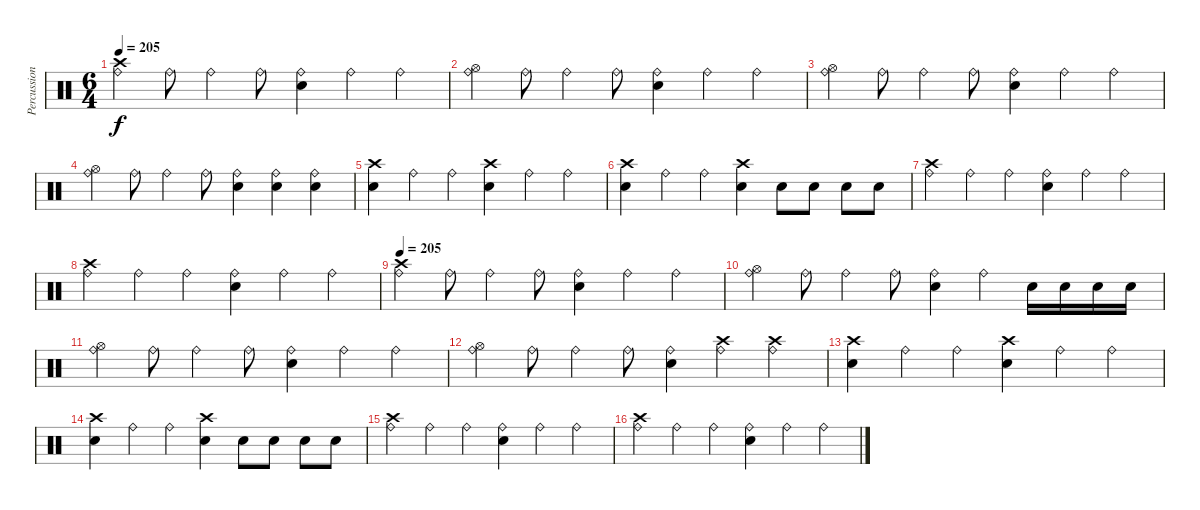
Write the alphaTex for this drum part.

\track ("Percussion" "Percussion") {instrument percussion}
\staff {score}
\articulation defaults
\ts (6 4)
\tempo 205
\clef neutral
\ks c
("Ride (bell)" "Crash high (hit)").4{dy f volume 12} "Ride (bell)".8 "Ride (bell)".4 "Ride (bell)".8 ("Ride (bell)" "Electric Snare (hit)").4 "Ride (bell)".4 "Ride (bell)".4 |
("Ride (bell)" "Hi-Hat (open)").4 "Ride (bell)".8 "Ride (bell)".4 "Ride (bell)".8 ("Ride (bell)" "Electric Snare (hit)").4 "Ride (bell)".4 "Ride (bell)".4 |
("Ride (bell)" "Hi-Hat (open)").4{volume 12} "Ride (bell)".8 "Ride (bell)".4 "Ride (bell)".8 ("Ride (bell)" "Electric Snare (hit)").4 "Ride (bell)".4 "Ride (bell)".4 |
("Ride (bell)" "Hi-Hat (open)").4 "Ride (bell)".8 "Ride (bell)".4 "Ride (bell)".8 ("Ride (bell)" "Electric Snare (hit)").4 ("Ride (bell)" "Snare (hit) 2").4 ("Ride (bell)" "Snare (hit) 2").4 |
("Crash high (hit)" "Snare (hit) 2").4 "Ride (bell)".4 "Ride (bell)".4 ("Crash high (hit)" "Snare (hit) 2").4 "Ride (bell)".4 "Ride (bell)".4 |
("Crash high (hit)" "Snare (hit) 2").4 "Ride (bell)".4 "Ride (bell)".4 ("Crash high (hit)" "Snare (hit) 2").4 "Electric Snare (hit)".8 "Electric Snare (hit)".8 "Electric Snare (hit)".8 "Electric Snare (hit)".8 |
("Ride (bell)" "Crash high (hit)").4 "Ride (bell)".4 "Ride (bell)".4 ("Ride (bell)" "Electric Snare (hit)").4 "Ride (bell)".4 "Ride (bell)".4 |
("Ride (bell)" "Crash high (hit)").4 "Ride (bell)".4 "Ride (bell)".4 ("Ride (bell)" "Electric Snare (hit)").4 "Ride (bell)".4 "Ride (bell)".4 |
\tempo 205
("Ride (bell)" "Crash high (hit)").4{volume 12} "Ride (bell)".8 "Ride (bell)".4 "Ride (bell)".8 ("Ride (bell)" "Electric Snare (hit)").4 "Ride (bell)".4 "Ride (bell)".4 |
("Ride (bell)" "Hi-Hat (open)").4 "Ride (bell)".8 "Ride (bell)".4 "Ride (bell)".8 ("Ride (bell)" "Electric Snare (hit)").4 "Ride (bell)".4 "Electric Snare (hit)".16 "Electric Snare (hit)".16 "Electric Snare (hit)".16 "Electric Snare (hit)".16 |
("Ride (bell)" "Hi-Hat (open)").4{volume 12} "Ride (bell)".8 "Ride (bell)".4 "Ride (bell)".8 ("Ride (bell)" "Electric Snare (hit)").4 "Ride (bell)".4 "Ride (bell)".4 |
("Ride (bell)" "Hi-Hat (open)").4 "Ride (bell)".8 "Ride (bell)".4 "Ride (bell)".8 ("Ride (bell)" "Electric Snare (hit)").4 ("Ride (bell)" "Crash high (hit)").4 ("Ride (bell)" "Crash high (hit)").4 |
("Crash high (hit)" "Snare (hit) 2").4 "Ride (bell)".4 "Ride (bell)".4 ("Crash high (hit)" "Snare (hit) 2").4 "Ride (bell)".4 "Ride (bell)".4 |
("Crash high (hit)" "Snare (hit) 2").4 "Ride (bell)".4 "Ride (bell)".4 ("Crash high (hit)" "Snare (hit) 2").4 "Electric Snare (hit)".8 "Electric Snare (hit)".8 "Electric Snare (hit)".8 "Electric Snare (hit)".8 |
("Ride (bell)" "Crash high (hit)").4 "Ride (bell)".4 "Ride (bell)".4 ("Ride (bell)" "Electric Snare (hit)").4 "Ride (bell)".4 "Ride (bell)".4 |
("Ride (bell)" "Crash high (hit)").4 "Ride (bell)".4 "Ride (bell)".4 ("Ride (bell)" "Electric Snare (hit)").4 "Ride (bell)".4 "Ride (bell)".4
